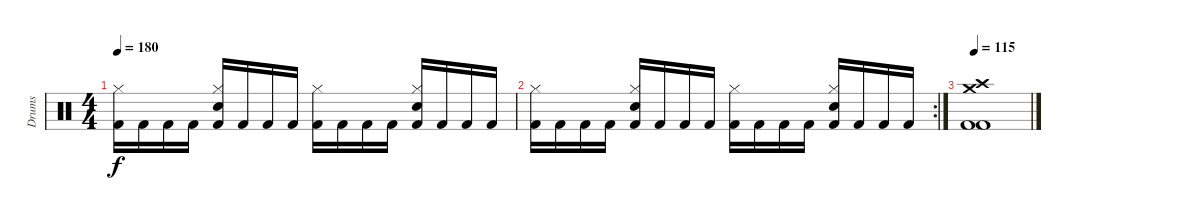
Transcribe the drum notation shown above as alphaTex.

\track ("Drums" "Drums") {instrument percussion}
\staff {score}
\articulation defaults
\ts (4 4)
\tempo 180
\clef neutral
\ks c
("Kick (hit) 2" "Hi-Hat (closed)").16{dy f} "Kick (hit) 2".16 "Kick (hit) 2".16 "Kick (hit) 2".16 ("Kick (hit) 2" "Hi-Hat (closed)" "Snare (hit) 2").16 "Kick (hit) 2".16 "Kick (hit) 2".16 "Kick (hit) 2".16 ("Kick (hit) 2" "Hi-Hat (closed)").16 "Kick (hit) 2".16 "Kick (hit) 2".16 "Kick (hit) 2".16 ("Kick (hit) 2" "Hi-Hat (closed)" "Snare (hit) 2").16 "Kick (hit) 2".16 "Kick (hit) 2".16 "Kick (hit) 2".16 |
\rc 2
("Kick (hit) 2" "Hi-Hat (closed)").16 "Kick (hit) 2".16 "Kick (hit) 2".16 "Kick (hit) 2".16 ("Kick (hit) 2" "Hi-Hat (closed)" "Snare (hit) 2").16 "Kick (hit) 2".16 "Kick (hit) 2".16 "Kick (hit) 2".16 ("Kick (hit) 2" "Hi-Hat (closed)").16 "Kick (hit) 2".16 "Kick (hit) 2".16 "Kick (hit) 2".16 ("Kick (hit) 2" "Hi-Hat (closed)" "Snare (hit) 2").16 "Kick (hit) 2".16 "Kick (hit) 2".16 "Kick (hit) 2".16 |
\tempo 115
("Kick (hit) 2" "Kick (hit) 2" "Crash high (hit)" "Crash medium (hit)").1
